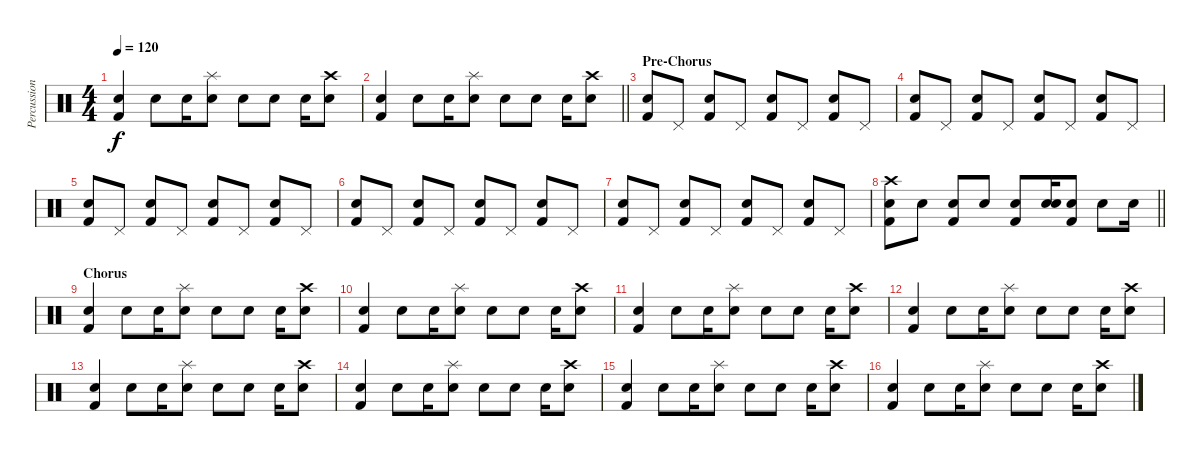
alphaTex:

\track ("Percussion" "Percussion") {instrument percussion}
\staff {score}
\articulation defaults
\ts (4 4)
\tempo 120
\clef neutral
\ks c
("Electric Snare (hit)" "Kick (hit) 2").4{dy f} "Electric Snare (hit)".8 "Electric Snare (hit)".16 ("Electric Snare (hit)" "Splash (hit)").8 "Electric Snare (hit)".8 "Electric Snare (hit)".8 "Electric Snare (hit)".16 ("Electric Snare (hit)" "Crash high (hit)").8 |
\barLineRight lightlight
("Electric Snare (hit)" "Kick (hit) 2").4 "Electric Snare (hit)".8 "Electric Snare (hit)".16 ("Electric Snare (hit)" "Splash (hit)").8 "Electric Snare (hit)".8 "Electric Snare (hit)".8 "Electric Snare (hit)".16 ("Electric Snare (hit)" "Crash high (hit)").8 |
\section ("" "Pre-Chorus")
("Electric Snare (hit)" "Kick (hit) 2").8 "Pedal Hi-Hat (hit)".8 ("Electric Snare (hit)" "Kick (hit) 2").8 "Pedal Hi-Hat (hit)".8 ("Electric Snare (hit)" "Kick (hit) 2").8 "Pedal Hi-Hat (hit)".8 ("Electric Snare (hit)" "Kick (hit) 2").8 "Pedal Hi-Hat (hit)".8 |
("Electric Snare (hit)" "Kick (hit) 2").8 "Pedal Hi-Hat (hit)".8 ("Electric Snare (hit)" "Kick (hit) 2").8 "Pedal Hi-Hat (hit)".8 ("Electric Snare (hit)" "Kick (hit) 2").8 "Pedal Hi-Hat (hit)".8 ("Electric Snare (hit)" "Kick (hit) 2").8 "Pedal Hi-Hat (hit)".8 |
("Electric Snare (hit)" "Kick (hit) 2").8 "Pedal Hi-Hat (hit)".8 ("Electric Snare (hit)" "Kick (hit) 2").8 "Pedal Hi-Hat (hit)".8 ("Electric Snare (hit)" "Kick (hit) 2").8 "Pedal Hi-Hat (hit)".8 ("Electric Snare (hit)" "Kick (hit) 2").8 "Pedal Hi-Hat (hit)".8 |
("Electric Snare (hit)" "Kick (hit) 2").8 "Pedal Hi-Hat (hit)".8 ("Electric Snare (hit)" "Kick (hit) 2").8 "Pedal Hi-Hat (hit)".8 ("Electric Snare (hit)" "Kick (hit) 2").8 "Pedal Hi-Hat (hit)".8 ("Electric Snare (hit)" "Kick (hit) 2").8 "Pedal Hi-Hat (hit)".8 |
("Electric Snare (hit)" "Kick (hit) 2").8 "Pedal Hi-Hat (hit)".8 ("Electric Snare (hit)" "Kick (hit) 2").8 "Pedal Hi-Hat (hit)".8 ("Electric Snare (hit)" "Kick (hit) 2").8 "Pedal Hi-Hat (hit)".8 ("Electric Snare (hit)" "Kick (hit) 2").8 "Pedal Hi-Hat (hit)".8 |
\barLineRight lightlight
("Electric Snare (hit)" "Kick (hit) 2" "Crash high (hit)").8 "Electric Snare (hit)".8 ("Electric Snare (hit)" "Kick (hit) 2").8 "Electric Snare (hit)".8 ("Kick (hit) 2" "Electric Snare (hit)").8 ("Electric Snare (hit)" "Hand Clap (hit)").16 ("Electric Snare (hit)" "Kick (hit) 2").8 "Electric Snare (hit)".8 "Electric Snare (hit)".16 |
\section ("" "Chorus")
("Electric Snare (hit)" "Kick (hit) 2").4 "Electric Snare (hit)".8 "Electric Snare (hit)".16 ("Electric Snare (hit)" "Splash (hit)").8 "Electric Snare (hit)".8 "Electric Snare (hit)".8 "Electric Snare (hit)".16 ("Electric Snare (hit)" "Crash high (hit)").8 |
("Electric Snare (hit)" "Kick (hit) 2").4 "Electric Snare (hit)".8 "Electric Snare (hit)".16 ("Electric Snare (hit)" "Splash (hit)").8 "Electric Snare (hit)".8 "Electric Snare (hit)".8 "Electric Snare (hit)".16 ("Electric Snare (hit)" "Crash high (hit)").8 |
("Electric Snare (hit)" "Kick (hit) 2").4 "Electric Snare (hit)".8 "Electric Snare (hit)".16 ("Electric Snare (hit)" "Splash (hit)").8 "Electric Snare (hit)".8 "Electric Snare (hit)".8 "Electric Snare (hit)".16 ("Electric Snare (hit)" "Crash high (hit)").8 |
("Electric Snare (hit)" "Kick (hit) 2").4 "Electric Snare (hit)".8 "Electric Snare (hit)".16 ("Electric Snare (hit)" "Splash (hit)").8 "Electric Snare (hit)".8 "Electric Snare (hit)".8 "Electric Snare (hit)".16 ("Electric Snare (hit)" "Crash high (hit)").8 |
("Electric Snare (hit)" "Kick (hit) 2").4 "Electric Snare (hit)".8 "Electric Snare (hit)".16 ("Electric Snare (hit)" "Splash (hit)").8 "Electric Snare (hit)".8 "Electric Snare (hit)".8 "Electric Snare (hit)".16 ("Electric Snare (hit)" "Crash high (hit)").8 |
("Electric Snare (hit)" "Kick (hit) 2").4 "Electric Snare (hit)".8 "Electric Snare (hit)".16 ("Electric Snare (hit)" "Splash (hit)").8 "Electric Snare (hit)".8 "Electric Snare (hit)".8 "Electric Snare (hit)".16 ("Electric Snare (hit)" "Crash high (hit)").8 |
("Electric Snare (hit)" "Kick (hit) 2").4 "Electric Snare (hit)".8 "Electric Snare (hit)".16 ("Electric Snare (hit)" "Splash (hit)").8 "Electric Snare (hit)".8 "Electric Snare (hit)".8 "Electric Snare (hit)".16 ("Electric Snare (hit)" "Crash high (hit)").8 |
("Electric Snare (hit)" "Kick (hit) 2").4 "Electric Snare (hit)".8 "Electric Snare (hit)".16 ("Electric Snare (hit)" "Splash (hit)").8 "Electric Snare (hit)".8 "Electric Snare (hit)".8 "Electric Snare (hit)".16 ("Electric Snare (hit)" "Crash high (hit)").8
